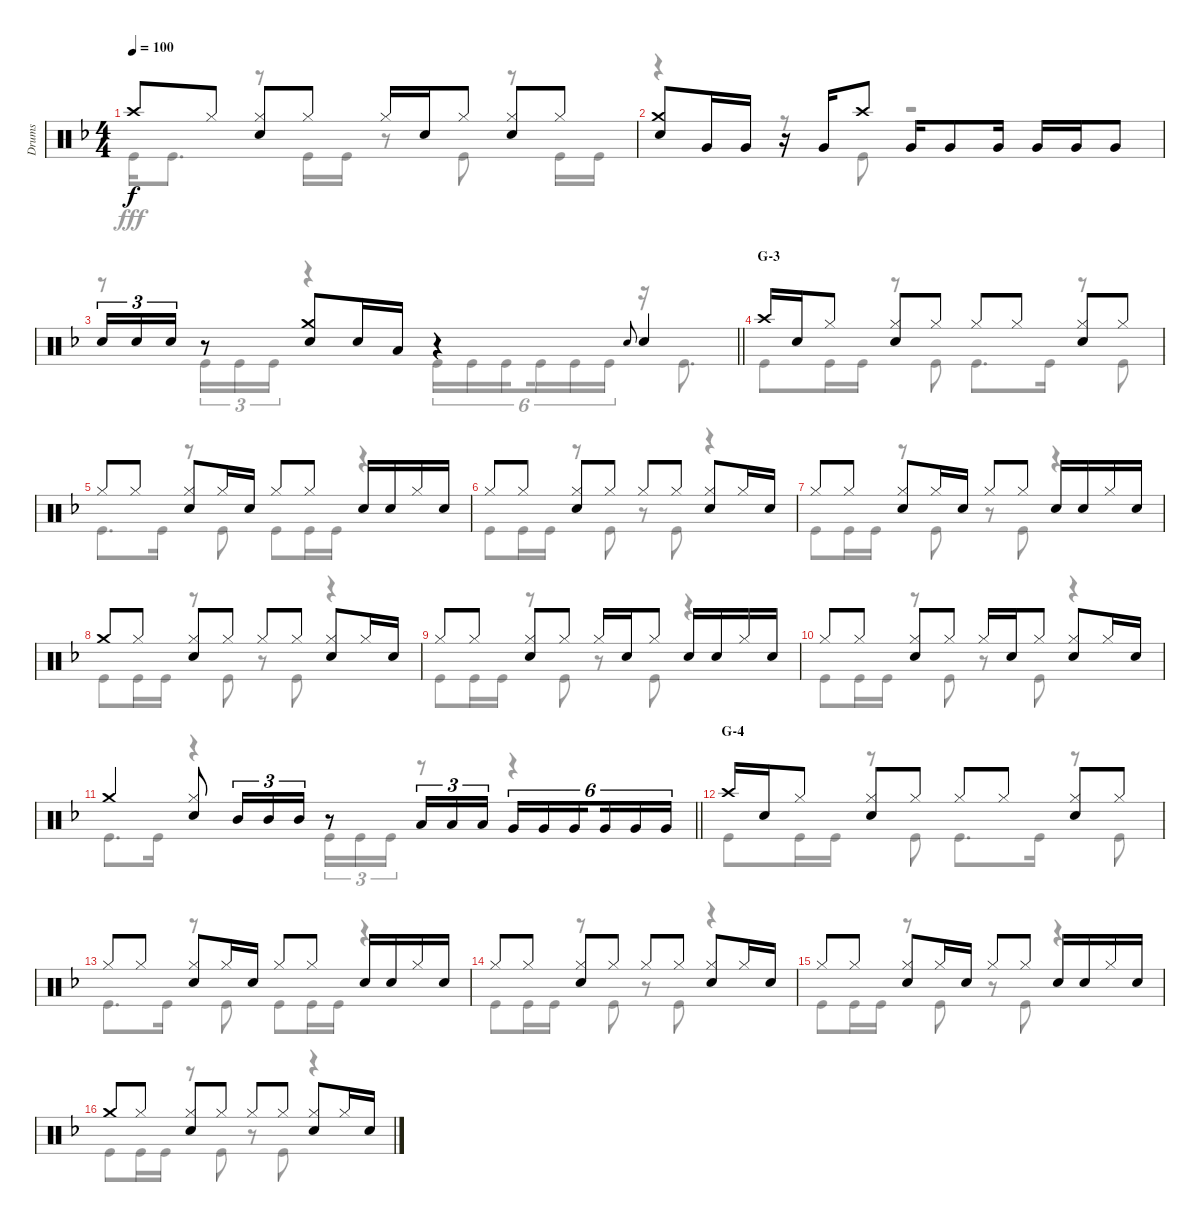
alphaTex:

\track ("Drums" "Drums") {instrument percussion}
\staff {score}
\articulation defaults
\voice
\ts (4 4)
\tempo 100
\clef neutral
\ks f "Crash high (hit)".8{dy f} "Hi-Hat (closed)".8
("Hi-Hat (closed)" "Snare (hit) 2").8 "Hi-Hat (closed)".8 "Hi-Hat (closed)".16 "Snare (hit) 2".16 "Hi-Hat (closed)".8 ("Hi-Hat (closed)" "Snare (hit) 2").8 "Hi-Hat (closed)".8 |
("Crash medium (hit)" "Snare (hit) 2").8 "Very Low Tom (hit)".16 "Very Low Tom (hit)".16 r.16 "Very Low Tom (hit)".16 "Crash high (hit)".8 "Very Low Tom (hit)".16 "Very Low Tom (hit)".8 "Very Low Tom (hit)".16 "Very Low Tom (hit)".16 "Very Low Tom (hit)".16 "Very Low Tom (hit)".8 |
\barLineRight lightlight "Snare (hit) 2".16{tu (3 2)} "Snare (hit) 2".16{tu (3 2)} "Snare (hit) 2".16{tu (3 2)}
r.8 ("Crash medium (hit)" "Snare (hit) 2").8 "Snare (hit) 2".16 "Low Tom (hit)".16 r.4 "Snare (hit) 2".8{gr onbeat} "Snare (hit) 2".4 |
\section ("" "G-3")
"Crash high (hit)".16 "Snare (hit) 2".16 "Hi-Hat (closed)".8 ("Hi-Hat (closed)" "Snare (hit) 2").8 "Hi-Hat (closed)".8 "Hi-Hat (closed)".8 "Hi-Hat (closed)".8 ("Hi-Hat (closed)" "Snare (hit) 2").8 "Hi-Hat (closed)".8 |
"Hi-Hat (closed)".8 "Hi-Hat (closed)".8 ("Hi-Hat (closed)" "Snare (hit) 2").8 "Hi-Hat (closed)".16 "Snare (hit) 2".16 "Hi-Hat (closed)".8 "Hi-Hat (closed)".8 "Snare (hit) 2".16 "Snare (hit) 2".16 "Hi-Hat (closed)".16 "Snare (hit) 2".16 |
"Hi-Hat (closed)".8 "Hi-Hat (closed)".8 ("Hi-Hat (closed)" "Snare (hit) 2").8 "Hi-Hat (closed)".8 "Hi-Hat (closed)".8 "Hi-Hat (closed)".8 ("Hi-Hat (closed)" "Snare (hit) 2").8 "Hi-Hat (closed)".16 "Snare (hit) 2".16 |
"Hi-Hat (closed)".8 "Hi-Hat (closed)".8 ("Hi-Hat (closed)" "Snare (hit) 2").8 "Hi-Hat (closed)".16 "Snare (hit) 2".16 "Hi-Hat (closed)".8 "Hi-Hat (closed)".8 "Snare (hit) 2".16 "Snare (hit) 2".16 "Hi-Hat (closed)".16 "Snare (hit) 2".16 |
"Crash medium (hit)".8 "Hi-Hat (closed)".8 ("Hi-Hat (closed)" "Snare (hit) 2").8 "Hi-Hat (closed)".8 "Hi-Hat (closed)".8 "Hi-Hat (closed)".8 ("Hi-Hat (closed)" "Snare (hit) 2").8 "Hi-Hat (closed)".16 "Snare (hit) 2".16 |
"Hi-Hat (closed)".8 "Hi-Hat (closed)".8 ("Hi-Hat (closed)" "Snare (hit) 2").8 "Hi-Hat (closed)".8 "Hi-Hat (closed)".16 "Snare (hit) 2".16 "Hi-Hat (closed)".8 "Snare (hit) 2".16 "Snare (hit) 2".16 "Hi-Hat (closed)".16 "Snare (hit) 2".16 |
"Hi-Hat (closed)".8 "Hi-Hat (closed)".8 ("Hi-Hat (closed)" "Snare (hit) 2").8 "Hi-Hat (closed)".8 "Hi-Hat (closed)".16 "Snare (hit) 2".16 "Hi-Hat (closed)".8 ("Hi-Hat (closed)" "Snare (hit) 2").8 "Hi-Hat (closed)".16 "Snare (hit) 2".16 |
\barLineRight lightlight "Crash medium (hit)".4
("Hi-Hat (closed)" "Snare (hit) 2").8 "Mid Tom (hit)".16{tu (3 2)} "Mid Tom (hit)".16{tu (3 2)} "Mid Tom (hit)".16{tu (3 2)} r.8 "Low Tom (hit)".16{tu (3 2)} "Low Tom (hit)".16{tu (3 2)} "Low Tom (hit)".16{tu (3 2)} "Very Low Tom (hit)".16{tu (6 4)} "Very Low Tom (hit)".16{tu (6 4)} "Very Low Tom (hit)".16{tu (6 4) beam splitsecondary} "Very Low Tom (hit)".16{tu (6 4)} "Very Low Tom (hit)".16{tu (6 4)} "Very Low Tom (hit)".16{tu (6 4)} |
\section ("" "G-4")
"Crash high (hit)".16 "Snare (hit) 2".16 "Hi-Hat (closed)".8 ("Hi-Hat (closed)" "Snare (hit) 2").8 "Hi-Hat (closed)".8 "Hi-Hat (closed)".8 "Hi-Hat (closed)".8 ("Hi-Hat (closed)" "Snare (hit) 2").8 "Hi-Hat (closed)".8 |
"Hi-Hat (closed)".8 "Hi-Hat (closed)".8 ("Hi-Hat (closed)" "Snare (hit) 2").8 "Hi-Hat (closed)".16 "Snare (hit) 2".16 "Hi-Hat (closed)".8 "Hi-Hat (closed)".8 "Snare (hit) 2".16 "Snare (hit) 2".16 "Hi-Hat (closed)".16 "Snare (hit) 2".16 |
"Hi-Hat (closed)".8 "Hi-Hat (closed)".8 ("Hi-Hat (closed)" "Snare (hit) 2").8 "Hi-Hat (closed)".8 "Hi-Hat (closed)".8 "Hi-Hat (closed)".8 ("Hi-Hat (closed)" "Snare (hit) 2").8 "Hi-Hat (closed)".16 "Snare (hit) 2".16 |
"Hi-Hat (closed)".8 "Hi-Hat (closed)".8 ("Hi-Hat (closed)" "Snare (hit) 2").8 "Hi-Hat (closed)".16 "Snare (hit) 2".16 "Hi-Hat (closed)".8 "Hi-Hat (closed)".8 "Snare (hit) 2".16 "Snare (hit) 2".16 "Hi-Hat (closed)".16 "Snare (hit) 2".16 |
"Crash medium (hit)".8 "Hi-Hat (closed)".8 ("Hi-Hat (closed)" "Snare (hit) 2").8 "Hi-Hat (closed)".8 "Hi-Hat (closed)".8 "Hi-Hat (closed)".8 ("Hi-Hat (closed)" "Snare (hit) 2").8 "Hi-Hat (closed)".16 "Snare (hit) 2".16
\voice
\clef neutral
\ottava regular
\simile none
\ks f "Kick (hit)".16{dy fff} "Kick (hit)".8{d}
r.8 "Kick (hit)".16 "Kick (hit)".16 r.8 "Kick (hit)".8 r.8 "Kick (hit)".16 "Kick (hit)".16 |
r.4 r.8 "Kick (hit)".8 r.2 |
\barLineRight lightlight
r.8 "Kick (hit)".16{tu (3 2)} "Kick (hit)".16{tu (3 2)} "Kick (hit)".16{tu (3 2)} r.4 "Kick (hit)".16{tu (6 4)} "Kick (hit)".16{tu (6 4)} "Kick (hit)".16{tu (6 4) beam splitsecondary} "Kick (hit)".16{tu (6 4)} "Kick (hit)".16{tu (6 4)} "Kick (hit)".16{tu (6 4)} r.16 "Kick (hit)".8{d} |
"Kick (hit)".8 "Kick (hit)".16 "Kick (hit)".16 r.8 "Kick (hit)".8 "Kick (hit)".8{d} "Kick (hit)".16 r.8 "Kick (hit)".8 |
"Kick (hit)".8{d} "Kick (hit)".16 r.8 "Kick (hit)".8 "Kick (hit)".8 "Kick (hit)".16 "Kick (hit)".16 r.4 |
"Kick (hit)".8 "Kick (hit)".16 "Kick (hit)".16 r.8 "Kick (hit)".8 r.8 "Kick (hit)".8 r.4 |
"Kick (hit)".8 "Kick (hit)".16 "Kick (hit)".16 r.8 "Kick (hit)".8 r.8 "Kick (hit)".8 r.4 |
"Kick (hit)".8 "Kick (hit)".16 "Kick (hit)".16 r.8 "Kick (hit)".8 r.8 "Kick (hit)".8 r.4 |
"Kick (hit)".8 "Kick (hit)".16 "Kick (hit)".16 r.8 "Kick (hit)".8 r.8 "Kick (hit)".8 r.4 |
"Kick (hit)".8 "Kick (hit)".16 "Kick (hit)".16 r.8 "Kick (hit)".8 r.8 "Kick (hit)".8 r.4 |
\barLineRight lightlight "Kick (hit)".8{d} "Kick (hit)".16
r.4 "Kick (hit)".16{tu (3 2)} "Kick (hit)".16{tu (3 2)} "Kick (hit)".16{tu (3 2)} r.8 r.4 |
"Kick (hit)".8 "Kick (hit)".16 "Kick (hit)".16 r.8 "Kick (hit)".8 "Kick (hit)".8{d} "Kick (hit)".16 r.8 "Kick (hit)".8 |
"Kick (hit)".8{d} "Kick (hit)".16 r.8 "Kick (hit)".8 "Kick (hit)".8 "Kick (hit)".16 "Kick (hit)".16 r.4 |
"Kick (hit)".8 "Kick (hit)".16 "Kick (hit)".16 r.8 "Kick (hit)".8 r.8 "Kick (hit)".8 r.4 |
"Kick (hit)".8 "Kick (hit)".16 "Kick (hit)".16 r.8 "Kick (hit)".8 r.8 "Kick (hit)".8 r.4 |
"Kick (hit)".8 "Kick (hit)".16 "Kick (hit)".16 r.8 "Kick (hit)".8 r.8 "Kick (hit)".8 r.4
